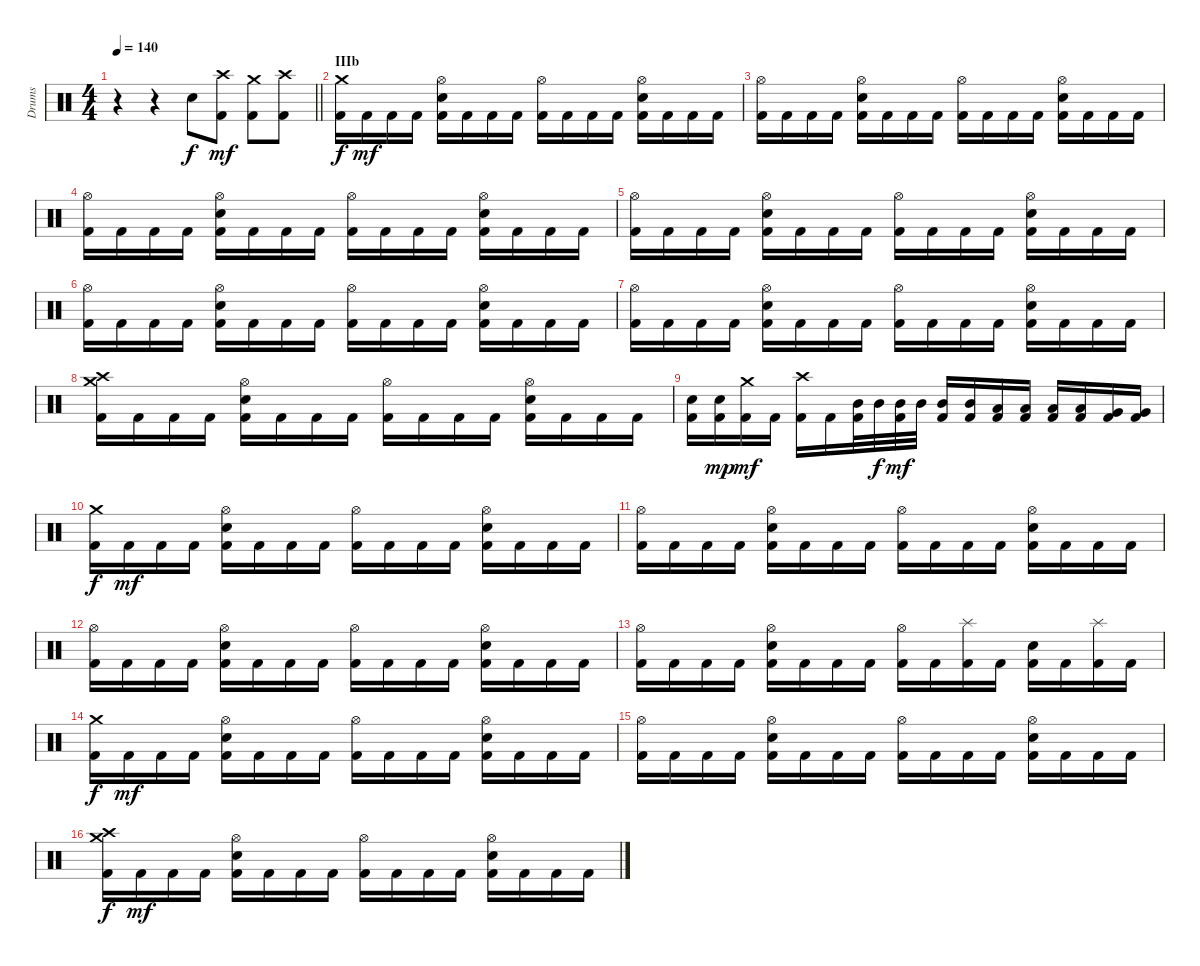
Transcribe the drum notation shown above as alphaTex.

\track ("Drums" "Drums") {instrument percussion}
\staff {score}
\articulation defaults
\ts (4 4)
\tempo 140
\clef neutral
\barLineRight lightlight
\ks c
r.4{dy ppp} r.4 "Electric Snare (hit)".8{dy f} ("Kick (hit) 2" "Crash high (hit)").8{dy mf} ("Kick (hit) 2" "Crash medium (hit)").8 ("Kick (hit) 2" "Crash high (hit)").8 |
\section ("" "IIIb")
("Kick (hit) 2" "Crash medium (hit)").16{dy f} "Kick (hit) 2".16{dy mf} "Kick (hit) 2".16 "Kick (hit) 2".16 ("Kick (hit) 2" "Electric Snare (hit)" "Hi-Hat (open)").16 "Kick (hit) 2".16 "Kick (hit) 2".16 "Kick (hit) 2".16 ("Kick (hit) 2" "Hi-Hat (open)").16 "Kick (hit) 2".16 "Kick (hit) 2".16 "Kick (hit) 2".16 ("Kick (hit) 2" "Electric Snare (hit)" "Hi-Hat (open)").16 "Kick (hit) 2".16 "Kick (hit) 2".16 "Kick (hit) 2".16 |
("Kick (hit) 2" "Hi-Hat (open)").16 "Kick (hit) 2".16 "Kick (hit) 2".16 "Kick (hit) 2".16 ("Kick (hit) 2" "Electric Snare (hit)" "Hi-Hat (open)").16 "Kick (hit) 2".16 "Kick (hit) 2".16 "Kick (hit) 2".16 ("Kick (hit) 2" "Hi-Hat (open)").16 "Kick (hit) 2".16 "Kick (hit) 2".16 "Kick (hit) 2".16 ("Kick (hit) 2" "Electric Snare (hit)" "Hi-Hat (open)").16 "Kick (hit) 2".16 "Kick (hit) 2".16 "Kick (hit) 2".16 |
("Kick (hit) 2" "Hi-Hat (open)").16 "Kick (hit) 2".16 "Kick (hit) 2".16 "Kick (hit) 2".16 ("Kick (hit) 2" "Electric Snare (hit)" "Hi-Hat (open)").16 "Kick (hit) 2".16 "Kick (hit) 2".16 "Kick (hit) 2".16 ("Kick (hit) 2" "Hi-Hat (open)").16 "Kick (hit) 2".16 "Kick (hit) 2".16 "Kick (hit) 2".16 ("Kick (hit) 2" "Electric Snare (hit)" "Hi-Hat (open)").16 "Kick (hit) 2".16 "Kick (hit) 2".16 "Kick (hit) 2".16 |
("Kick (hit) 2" "Hi-Hat (open)").16 "Kick (hit) 2".16 "Kick (hit) 2".16 "Kick (hit) 2".16 ("Kick (hit) 2" "Electric Snare (hit)" "Hi-Hat (open)").16 "Kick (hit) 2".16 "Kick (hit) 2".16 "Kick (hit) 2".16 ("Kick (hit) 2" "Hi-Hat (open)").16 "Kick (hit) 2".16 "Kick (hit) 2".16 "Kick (hit) 2".16 ("Kick (hit) 2" "Electric Snare (hit)" "Hi-Hat (open)").16 "Kick (hit) 2".16 "Kick (hit) 2".16 "Kick (hit) 2".16 |
("Kick (hit) 2" "Hi-Hat (open)").16 "Kick (hit) 2".16 "Kick (hit) 2".16 "Kick (hit) 2".16 ("Kick (hit) 2" "Electric Snare (hit)" "Hi-Hat (open)").16 "Kick (hit) 2".16 "Kick (hit) 2".16 "Kick (hit) 2".16 ("Kick (hit) 2" "Hi-Hat (open)").16 "Kick (hit) 2".16 "Kick (hit) 2".16 "Kick (hit) 2".16 ("Kick (hit) 2" "Electric Snare (hit)" "Hi-Hat (open)").16 "Kick (hit) 2".16 "Kick (hit) 2".16 "Kick (hit) 2".16 |
("Kick (hit) 2" "Hi-Hat (open)").16 "Kick (hit) 2".16 "Kick (hit) 2".16 "Kick (hit) 2".16 ("Kick (hit) 2" "Electric Snare (hit)" "Hi-Hat (open)").16 "Kick (hit) 2".16 "Kick (hit) 2".16 "Kick (hit) 2".16 ("Kick (hit) 2" "Hi-Hat (open)").16 "Kick (hit) 2".16 "Kick (hit) 2".16 "Kick (hit) 2".16 ("Kick (hit) 2" "Electric Snare (hit)" "Hi-Hat (open)").16 "Kick (hit) 2".16 "Kick (hit) 2".16 "Kick (hit) 2".16 |
("Kick (hit) 2" "Crash high (hit)" "Crash medium (hit)").16 "Kick (hit) 2".16 "Kick (hit) 2".16 "Kick (hit) 2".16 ("Kick (hit) 2" "Electric Snare (hit)" "Hi-Hat (open)").16 "Kick (hit) 2".16 "Kick (hit) 2".16 "Kick (hit) 2".16 ("Kick (hit) 2" "Hi-Hat (open)").16 "Kick (hit) 2".16 "Kick (hit) 2".16 "Kick (hit) 2".16 ("Kick (hit) 2" "Electric Snare (hit)" "Hi-Hat (open)").16 "Kick (hit) 2".16 "Kick (hit) 2".16 "Kick (hit) 2".16 |
("Kick (hit) 2" "Electric Snare (hit)").16 ("Kick (hit) 2" "Electric Snare (hit)").16{dy mp} ("Kick (hit) 2" "Crash medium (hit)").16{dy mf} "Kick (hit) 2".16 ("Kick (hit) 2" "Crash high (hit)").16 "Kick (hit) 2".16 ("Kick (hit) 2" "Mid Tom (hit)").32 "Mid Tom (hit)".32{dy f} ("Kick (hit) 2" "Mid Tom (hit)").32{dy mf} "Mid Tom (hit)".32 ("Kick (hit) 2" "Mid Tom (hit)").16 ("Kick (hit) 2" "Mid Tom (hit)").16 ("Kick (hit) 2" "Low Tom (hit)").16 ("Kick (hit) 2" "Low Tom (hit)").16 ("Kick (hit) 2" "Low Tom (hit)").16 ("Kick (hit) 2" "Low Tom (hit)").16 ("Kick (hit) 2" "Very Low Tom (hit)").16 ("Kick (hit) 2" "Very Low Tom (hit)").16 |
("Kick (hit) 2" "Crash medium (hit)").16{dy f} "Kick (hit) 2".16{dy mf} "Kick (hit) 2".16 "Kick (hit) 2".16 ("Kick (hit) 2" "Electric Snare (hit)" "Hi-Hat (open)").16 "Kick (hit) 2".16 "Kick (hit) 2".16 "Kick (hit) 2".16 ("Kick (hit) 2" "Hi-Hat (open)").16 "Kick (hit) 2".16 "Kick (hit) 2".16 "Kick (hit) 2".16 ("Kick (hit) 2" "Electric Snare (hit)" "Hi-Hat (open)").16 "Kick (hit) 2".16 "Kick (hit) 2".16 "Kick (hit) 2".16 |
("Kick (hit) 2" "Hi-Hat (open)").16 "Kick (hit) 2".16 "Kick (hit) 2".16 "Kick (hit) 2".16 ("Kick (hit) 2" "Electric Snare (hit)" "Hi-Hat (open)").16 "Kick (hit) 2".16 "Kick (hit) 2".16 "Kick (hit) 2".16 ("Kick (hit) 2" "Hi-Hat (open)").16 "Kick (hit) 2".16 "Kick (hit) 2".16 "Kick (hit) 2".16 ("Kick (hit) 2" "Electric Snare (hit)" "Hi-Hat (open)").16 "Kick (hit) 2".16 "Kick (hit) 2".16 "Kick (hit) 2".16 |
("Kick (hit) 2" "Hi-Hat (open)").16 "Kick (hit) 2".16 "Kick (hit) 2".16 "Kick (hit) 2".16 ("Kick (hit) 2" "Electric Snare (hit)" "Hi-Hat (open)").16 "Kick (hit) 2".16 "Kick (hit) 2".16 "Kick (hit) 2".16 ("Kick (hit) 2" "Hi-Hat (open)").16 "Kick (hit) 2".16 "Kick (hit) 2".16 "Kick (hit) 2".16 ("Kick (hit) 2" "Electric Snare (hit)" "Hi-Hat (open)").16 "Kick (hit) 2".16 "Kick (hit) 2".16 "Kick (hit) 2".16 |
("Kick (hit) 2" "Hi-Hat (open)").16 "Kick (hit) 2".16 "Kick (hit) 2".16 "Kick (hit) 2".16 ("Kick (hit) 2" "Electric Snare (hit)" "Hi-Hat (open)").16 "Kick (hit) 2".16 "Kick (hit) 2".16 "Kick (hit) 2".16 ("Kick (hit) 2" "Hi-Hat (open)").16 "Kick (hit) 2".16 ("Kick (hit) 2" "Splash (hit)").16 "Kick (hit) 2".16 ("Kick (hit) 2" "Electric Snare (hit)").16 "Kick (hit) 2".16 ("Kick (hit) 2" "Splash (hit)").16 "Kick (hit) 2".16 |
("Kick (hit) 2" "Crash medium (hit)").16{dy f} "Kick (hit) 2".16{dy mf} "Kick (hit) 2".16 "Kick (hit) 2".16 ("Kick (hit) 2" "Electric Snare (hit)" "Hi-Hat (open)").16 "Kick (hit) 2".16 "Kick (hit) 2".16 "Kick (hit) 2".16 ("Kick (hit) 2" "Hi-Hat (open)").16 "Kick (hit) 2".16 "Kick (hit) 2".16 "Kick (hit) 2".16 ("Kick (hit) 2" "Electric Snare (hit)" "Hi-Hat (open)").16 "Kick (hit) 2".16 "Kick (hit) 2".16 "Kick (hit) 2".16 |
("Kick (hit) 2" "Hi-Hat (open)").16 "Kick (hit) 2".16 "Kick (hit) 2".16 "Kick (hit) 2".16 ("Kick (hit) 2" "Electric Snare (hit)" "Hi-Hat (open)").16 "Kick (hit) 2".16 "Kick (hit) 2".16 "Kick (hit) 2".16 ("Kick (hit) 2" "Hi-Hat (open)").16 "Kick (hit) 2".16 "Kick (hit) 2".16 "Kick (hit) 2".16 ("Kick (hit) 2" "Electric Snare (hit)" "Hi-Hat (open)").16 "Kick (hit) 2".16 "Kick (hit) 2".16 "Kick (hit) 2".16 |
("Kick (hit) 2" "Crash high (hit)" "Crash medium (hit)").16{dy f} "Kick (hit) 2".16{dy mf} "Kick (hit) 2".16 "Kick (hit) 2".16 ("Kick (hit) 2" "Electric Snare (hit)" "Hi-Hat (open)").16 "Kick (hit) 2".16 "Kick (hit) 2".16 "Kick (hit) 2".16 ("Kick (hit) 2" "Hi-Hat (open)").16 "Kick (hit) 2".16 "Kick (hit) 2".16 "Kick (hit) 2".16 ("Kick (hit) 2" "Electric Snare (hit)" "Hi-Hat (open)").16 "Kick (hit) 2".16 "Kick (hit) 2".16 "Kick (hit) 2".16
